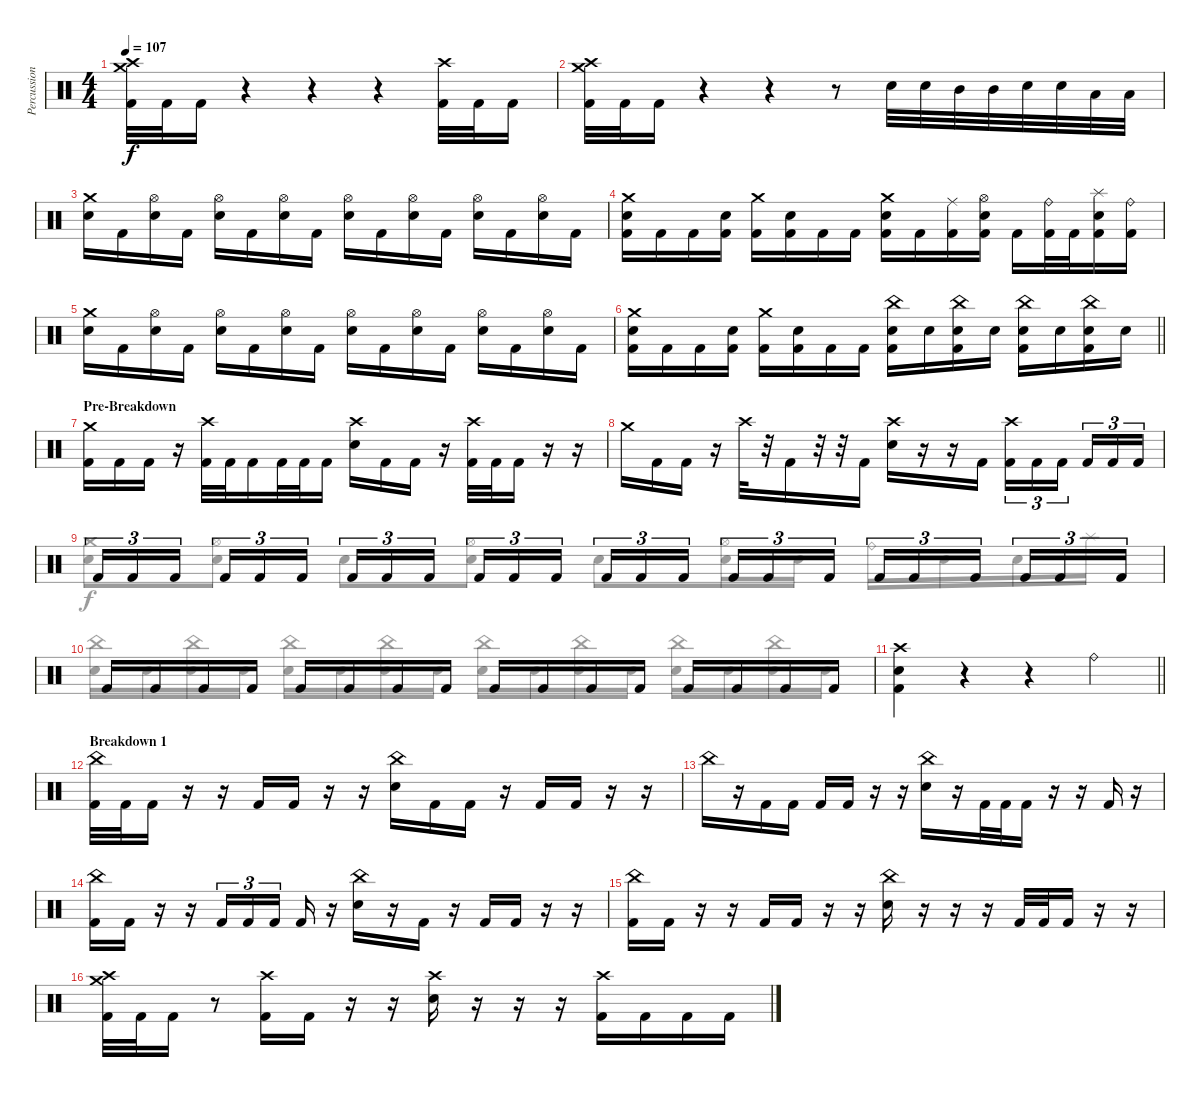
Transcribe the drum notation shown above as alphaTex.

\track ("Percussion" "Percussion") {instrument percussion}
\staff {score}
\articulation defaults
\voice
\ts (4 4)
\tempo 107
\clef neutral
\ks c
("Crash medium (hit)" "Crash high (hit)" "Kick (hit) 2").32{dy f} "Kick (hit) 2".32 "Kick (hit) 2".16 r.4 r.4 r.4 ("Crash high (hit)" "Kick (hit) 2").32 "Kick (hit) 2".32 "Kick (hit) 2".16 |
("Crash medium (hit)" "Crash high (hit)" "Kick (hit) 2").32 "Kick (hit) 2".32 "Kick (hit) 2".16 r.4 r.4 r.8 "Electric Snare (hit)".32 "Electric Snare (hit)".32 "Mid Tom (hit)".32 "Mid Tom (hit)".32 "Electric Snare (hit)".32 "Electric Snare (hit)".32 "Low Floor Tom (hit)".32 "Low Floor Tom (hit)".32 |
("Crash medium (hit)" "Electric Snare (hit)").16 "Kick (hit) 2".16 ("Hi-Hat (open)" "Electric Snare (hit)").16 "Kick (hit) 2".16 ("Hi-Hat (open)" "Electric Snare (hit)").16 "Kick (hit) 2".16 ("Hi-Hat (open)" "Electric Snare (hit)").16 "Kick (hit) 2".16 ("Hi-Hat (open)" "Electric Snare (hit)").16 "Kick (hit) 2".16 ("Hi-Hat (open)" "Electric Snare (hit)").16 "Kick (hit) 2".16 ("Hi-Hat (open)" "Electric Snare (hit)").16 "Kick (hit) 2".16 ("Hi-Hat (open)" "Electric Snare (hit)").16 "Kick (hit) 2".16 |
("Crash medium (hit)" "Electric Snare (hit)" "Kick (hit) 2").16 "Kick (hit) 2".16 "Kick (hit) 2".16 ("Electric Snare (hit)" "Kick (hit) 2").16 ("Crash medium (hit)" "Kick (hit) 2").16 ("Electric Snare (hit)" "Kick (hit) 2").16 "Kick (hit) 2".16 "Kick (hit) 2".16 ("Crash medium (hit)" "Electric Snare (hit)" "Kick (hit) 2").16 "Kick (hit) 2".16 ("Ride (middle)" "Kick (hit) 2").16 ("Hi-Hat (open)" "Electric Snare (hit)" "Kick (hit) 2").16 "Kick (hit) 2".16 ("Ride (bell)" "Kick (hit) 2").32 "Kick (hit) 2".32 ("Splash (hit)" "Electric Snare (hit)" "Kick (hit) 2").16 ("Ride (bell)" "Kick (hit) 2").16 |
("Crash medium (hit)" "Electric Snare (hit)").16 "Kick (hit) 2".16 ("Hi-Hat (open)" "Electric Snare (hit)").16 "Kick (hit) 2".16 ("Hi-Hat (open)" "Electric Snare (hit)").16 "Kick (hit) 2".16 ("Hi-Hat (open)" "Electric Snare (hit)").16 "Kick (hit) 2".16 ("Hi-Hat (open)" "Electric Snare (hit)").16 "Kick (hit) 2".16 ("Hi-Hat (open)" "Electric Snare (hit)").16 "Kick (hit) 2".16 ("Hi-Hat (open)" "Electric Snare (hit)").16 "Kick (hit) 2".16 ("Hi-Hat (open)" "Electric Snare (hit)").16 "Kick (hit) 2".16 |
\barLineRight lightlight
("Crash medium (hit)" "Electric Snare (hit)" "Kick (hit) 2").16 "Kick (hit) 2".16 "Kick (hit) 2".16 ("Electric Snare (hit)" "Kick (hit) 2").16 ("Crash medium (hit)" "Kick (hit) 2").16 ("Electric Snare (hit)" "Kick (hit) 2").16 "Kick (hit) 2".16 "Kick (hit) 2".16 ("China (hit)" "Electric Snare (hit)" "Kick (hit) 2").16 "Electric Snare (hit)".16 ("China (hit)" "Electric Snare (hit)" "Kick (hit) 2").16 "Electric Snare (hit)".16 ("China (hit)" "Electric Snare (hit)" "Kick (hit) 2").16 "Electric Snare (hit)".16 ("China (hit)" "Electric Snare (hit)" "Kick (hit) 2").16 "Electric Snare (hit)".16 |
\section ("" "Pre-Breakdown")
("Crash medium (hit)" "Kick (hit) 2").16 "Kick (hit) 2".16 "Kick (hit) 2".16 r.16 ("Crash high (hit)" "Kick (hit) 2").32 "Kick (hit) 2".32 "Kick (hit) 2".16 "Kick (hit) 2".32 "Kick (hit) 2".32 "Kick (hit) 2".16 ("Crash high (hit)" "Electric Snare (hit)").16 "Kick (hit) 2".16 "Kick (hit) 2".16 r.16 ("Crash high (hit)" "Kick (hit) 2").32 "Kick (hit) 2".32 "Kick (hit) 2".16 r.16 r.16 |
"Crash medium (hit)".16 "Kick (hit) 2".16 "Kick (hit) 2".16 r.16 "Crash high (hit)".32 r.32 "Kick (hit) 2".16 r.32 r.32 "Kick (hit) 2".16 ("Crash high (hit)" "Electric Snare (hit)").16 r.16 r.16 "Kick (hit) 2".16 ("Crash high (hit)" "Kick (hit) 2").16{tu (3 2)} "Kick (hit) 2".16{tu (3 2)} "Kick (hit) 2".16{tu (3 2) beam splitsecondary} "Kick (hit) 2".16{tu (3 2)} "Kick (hit) 2".16{tu (3 2)} "Kick (hit) 2".16{tu (3 2)} |
"Kick (hit) 2".16{tu (3 2)} "Kick (hit) 2".16{tu (3 2)} "Kick (hit) 2".16{tu (3 2) beam splitsecondary} "Kick (hit) 2".16{tu (3 2)} "Kick (hit) 2".16{tu (3 2)} "Kick (hit) 2".16{tu (3 2)} "Kick (hit) 2".16{tu (3 2)} "Kick (hit) 2".16{tu (3 2)} "Kick (hit) 2".16{tu (3 2) beam splitsecondary} "Kick (hit) 2".16{tu (3 2)} "Kick (hit) 2".16{tu (3 2)} "Kick (hit) 2".16{tu (3 2)} "Kick (hit) 2".16{tu (3 2)} "Kick (hit) 2".16{tu (3 2)} "Kick (hit) 2".16{tu (3 2) beam splitsecondary} "Kick (hit) 2".16{tu (3 2)} "Kick (hit) 2".16{tu (3 2)} "Kick (hit) 2".16{tu (3 2)} "Kick (hit) 2".16{tu (3 2)} "Kick (hit) 2".16{tu (3 2)} "Kick (hit) 2".16{tu (3 2) beam splitsecondary} "Kick (hit) 2".16{tu (3 2)} "Kick (hit) 2".16{tu (3 2)} "Kick (hit) 2".16{tu (3 2)} |
"Kick (hit) 2".16 "Kick (hit) 2".16 "Kick (hit) 2".16 "Kick (hit) 2".16 "Kick (hit) 2".16 "Kick (hit) 2".16 "Kick (hit) 2".16 "Kick (hit) 2".16 "Kick (hit) 2".16 "Kick (hit) 2".16 "Kick (hit) 2".16 "Kick (hit) 2".16 "Kick (hit) 2".16 "Kick (hit) 2".16 "Kick (hit) 2".16 "Kick (hit) 2".16 |
\barLineRight lightlight
("Crash high (hit)" "Electric Snare (hit)" "Kick (hit) 2").4 r.4 r.4 "Ride (bell)".4 |
\section ("" "Breakdown 1")
("China (hit)" "Kick (hit) 2").32 "Kick (hit) 2".32 "Kick (hit) 2".16 r.16 r.16 "Kick (hit) 2".16 "Kick (hit) 2".16 r.16 r.16 ("China (hit)" "Electric Snare (hit)").16 "Kick (hit) 2".16 "Kick (hit) 2".16 r.16 "Kick (hit) 2".16 "Kick (hit) 2".16 r.16 r.16 |
"China (hit)".16 r.16 "Kick (hit) 2".16 "Kick (hit) 2".16 "Kick (hit) 2".16 "Kick (hit) 2".16 r.16 r.16 ("China (hit)" "Electric Snare (hit)").16 r.16 "Kick (hit) 2".32 "Kick (hit) 2".32 "Kick (hit) 2".16 r.16 r.16 "Kick (hit) 2".16 r.16 |
("China (hit)" "Kick (hit) 2").16 "Kick (hit) 2".16 r.16 r.16 "Kick (hit) 2".16{tu (3 2)} "Kick (hit) 2".16{tu (3 2)} "Kick (hit) 2".16{tu (3 2) beam splitsecondary} "Kick (hit) 2".16 r.16 ("China (hit)" "Electric Snare (hit)").16 r.16 "Kick (hit) 2".16 r.16 "Kick (hit) 2".16 "Kick (hit) 2".16 r.16 r.16 |
("China (hit)" "Kick (hit) 2").16 "Kick (hit) 2".16 r.16 r.16 "Kick (hit) 2".16 "Kick (hit) 2".16 r.16 r.16 ("China (hit)" "Electric Snare (hit)").16 r.16 r.16 r.16 "Kick (hit) 2".32 "Kick (hit) 2".32 "Kick (hit) 2".16 r.16 r.16 |
("Crash high (hit)" "Crash medium (hit)" "Kick (hit) 2").32 "Kick (hit) 2".32 "Kick (hit) 2".16 r.8 ("Crash high (hit)" "Kick (hit) 2").16 "Kick (hit) 2".16 r.16 r.16 ("Crash high (hit)" "Electric Snare (hit)").16 r.16 r.16 r.16 ("Crash high (hit)" "Kick (hit) 2").16 "Kick (hit) 2".16 "Kick (hit) 2".16 "Kick (hit) 2".16
\voice
\clef neutral
\ottava regular
\simile none
\ks c
|
|
|
|
|
\barLineRight lightlight
|
|
|
("Crash medium (hit)" "Electric Snare (hit)").8 ("Hi-Hat (open)" "Electric Snare (hit)").8 "Electric Snare (hit)".8 ("Hi-Hat (open)" "Electric Snare (hit)").8 "Electric Snare (hit)".8 ("Hi-Hat (open)" "Electric Snare (hit)").16 "Electric Snare (hit)".16 "Ride (bell)".16 "Electric Snare (hit)".16 "Electric Snare (hit)".16 "Splash (hit)".16 |
("China (hit)" "Electric Snare (hit)").16 "Electric Snare (hit)".16 ("China (hit)" "Electric Snare (hit)").16 "Electric Snare (hit)".16 ("China (hit)" "Electric Snare (hit)").16 "Electric Snare (hit)".16 ("China (hit)" "Electric Snare (hit)").16 "Electric Snare (hit)".16 ("China (hit)" "Electric Snare (hit)").16 "Electric Snare (hit)".16 ("China (hit)" "Electric Snare (hit)").16 "Electric Snare (hit)".16 ("China (hit)" "Electric Snare (hit)").16 "Electric Snare (hit)".16 ("China (hit)" "Electric Snare (hit)").16 "Electric Snare (hit)".16 |
\barLineRight lightlight
|
|
|
|
|
